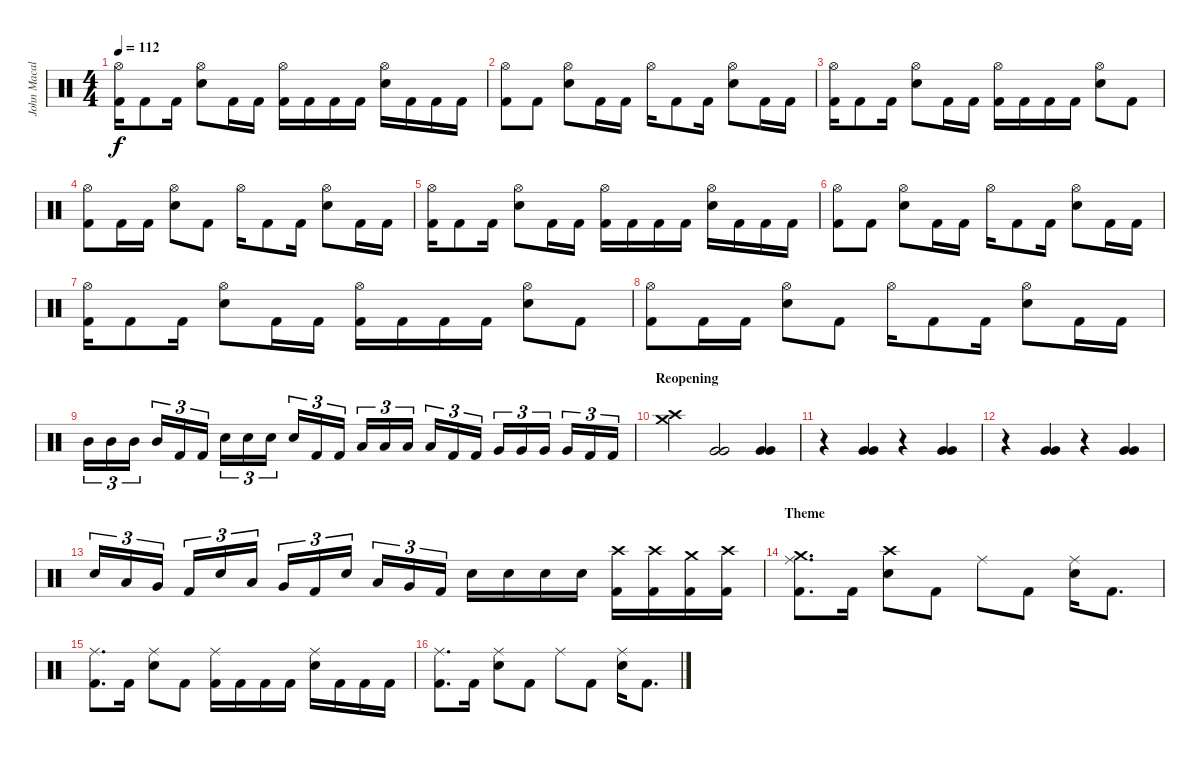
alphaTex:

\track ("John Macaluso" "John Macal") {instrument percussion}
\staff {score}
\articulation defaults
\ts (4 4)
\tempo 112
\clef neutral
\ks c
("Hi-Hat (open)" "Kick (hit) 2").16{dy f} "Kick (hit) 2".8 "Kick (hit) 2".16 ("Hi-Hat (open)" "Snare (hit) 2").8 "Kick (hit) 2".16 "Kick (hit) 2".16 ("Hi-Hat (open)" "Kick (hit) 2").16 "Kick (hit) 2".16 "Kick (hit) 2".16 "Kick (hit) 2".16 ("Hi-Hat (open)" "Snare (hit) 2").16 "Kick (hit) 2".16 "Kick (hit) 2".16 "Kick (hit) 2".16 |
("Hi-Hat (open)" "Kick (hit) 2").8 "Kick (hit) 2".8 ("Hi-Hat (open)" "Snare (hit) 2").8 "Kick (hit) 2".16 "Kick (hit) 2".16 "Hi-Hat (open)".16 "Kick (hit) 2".8 "Kick (hit) 2".16 ("Hi-Hat (open)" "Snare (hit) 2").8 "Kick (hit) 2".16 "Kick (hit) 2".16 |
("Hi-Hat (open)" "Kick (hit) 2").16 "Kick (hit) 2".8 "Kick (hit) 2".16 ("Hi-Hat (open)" "Snare (hit) 2").8 "Kick (hit) 2".16 "Kick (hit) 2".16 ("Hi-Hat (open)" "Kick (hit) 2").16 "Kick (hit) 2".16 "Kick (hit) 2".16 "Kick (hit) 2".16 ("Hi-Hat (open)" "Snare (hit) 2").8 "Kick (hit) 2".8 |
("Hi-Hat (open)" "Kick (hit) 2").8 "Kick (hit) 2".16 "Kick (hit) 2".16 ("Hi-Hat (open)" "Snare (hit) 2").8 "Kick (hit) 2".8 "Hi-Hat (open)".16 "Kick (hit) 2".8 "Kick (hit) 2".16 ("Hi-Hat (open)" "Snare (hit) 2").8 "Kick (hit) 2".16 "Kick (hit) 2".16 |
("Hi-Hat (open)" "Kick (hit) 2").16 "Kick (hit) 2".8 "Kick (hit) 2".16 ("Hi-Hat (open)" "Snare (hit) 2").8 "Kick (hit) 2".16 "Kick (hit) 2".16 ("Hi-Hat (open)" "Kick (hit) 2").16 "Kick (hit) 2".16 "Kick (hit) 2".16 "Kick (hit) 2".16 ("Hi-Hat (open)" "Snare (hit) 2").16 "Kick (hit) 2".16 "Kick (hit) 2".16 "Kick (hit) 2".16 |
("Hi-Hat (open)" "Kick (hit) 2").8 "Kick (hit) 2".8 ("Hi-Hat (open)" "Snare (hit) 2").8 "Kick (hit) 2".16 "Kick (hit) 2".16 "Hi-Hat (open)".16 "Kick (hit) 2".8 "Kick (hit) 2".16 ("Hi-Hat (open)" "Snare (hit) 2").8 "Kick (hit) 2".16 "Kick (hit) 2".16 |
("Hi-Hat (open)" "Kick (hit) 2").16 "Kick (hit) 2".8 "Kick (hit) 2".16 ("Hi-Hat (open)" "Snare (hit) 2").8 "Kick (hit) 2".16 "Kick (hit) 2".16 ("Hi-Hat (open)" "Kick (hit) 2").16 "Kick (hit) 2".16 "Kick (hit) 2".16 "Kick (hit) 2".16 ("Hi-Hat (open)" "Snare (hit) 2").8 "Kick (hit) 2".8 |
("Hi-Hat (open)" "Kick (hit) 2").8 "Kick (hit) 2".16 "Kick (hit) 2".16 ("Hi-Hat (open)" "Snare (hit) 2").8 "Kick (hit) 2".8 "Hi-Hat (open)".16 "Kick (hit) 2".8 "Kick (hit) 2".16 ("Hi-Hat (open)" "Snare (hit) 2").8 "Kick (hit) 2".16 "Kick (hit) 2".16 |
"Mid Tom (hit)".16{tu (3 2)} "Mid Tom (hit)".16{tu (3 2)} "Mid Tom (hit)".16{tu (3 2) beam splitsecondary} "Mid Tom (hit)".16{tu (3 2)} "Kick (hit) 2".16{tu (3 2)} "Kick (hit) 2".16{tu (3 2)} "Snare (hit) 2".16{tu (3 2)} "Snare (hit) 2".16{tu (3 2)} "Snare (hit) 2".16{tu (3 2) beam splitsecondary} "Snare (hit) 2".16{tu (3 2)} "Kick (hit) 2".16{tu (3 2)} "Kick (hit) 2".16{tu (3 2)} "Low Tom (hit)".16{tu (3 2)} "Low Tom (hit)".16{tu (3 2)} "Low Tom (hit)".16{tu (3 2) beam splitsecondary} "Low Tom (hit)".16{tu (3 2)} "Kick (hit) 2".16{tu (3 2)} "Kick (hit) 2".16{tu (3 2)} "Very Low Tom (hit)".16{tu (3 2)} "Very Low Tom (hit)".16{tu (3 2)} "Very Low Tom (hit)".16{tu (3 2) beam splitsecondary} "Very Low Tom (hit)".16{tu (3 2)} "Kick (hit) 2".16{tu (3 2)} "Kick (hit) 2".16{tu (3 2)} |
\section ("" "Reopening")
("Crash medium (hit)" "Crash high (hit)").4 ("Very Low Tom (hit)" "Very Low Tom (hit)").2 ("Very Low Tom (hit)" "Very Low Tom (hit)").4 |
r.4 ("Very Low Tom (hit)" "Very Low Tom (hit)").4 r.4 ("Very Low Tom (hit)" "Very Low Tom (hit)").4 |
r.4 ("Very Low Tom (hit)" "Very Low Tom (hit)").4 r.4 ("Very Low Tom (hit)" "Very Low Tom (hit)").4 |
"Snare (hit) 2".16{tu (3 2)} "Low Tom (hit)".16{tu (3 2)} "Very Low Tom (hit)".16{tu (3 2) beam splitsecondary} "Kick (hit) 2".16{tu (3 2)} "Snare (hit) 2".16{tu (3 2)} "Low Tom (hit)".16{tu (3 2)} "Very Low Tom (hit)".16{tu (3 2)} "Kick (hit) 2".16{tu (3 2)} "Snare (hit) 2".16{tu (3 2) beam splitsecondary} "Low Tom (hit)".16{tu (3 2)} "Very Low Tom (hit)".16{tu (3 2)} "Kick (hit) 2".16{tu (3 2)} "Snare (hit) 2".16 "Snare (hit) 2".16 "Snare (hit) 2".16 "Snare (hit) 2".16 ("Crash high (hit)" "Kick (hit) 2").16 ("Crash high (hit)" "Kick (hit) 2").16 ("Crash medium (hit)" "Kick (hit) 2").16 ("Crash high (hit)" "Kick (hit) 2").16 |
\section ("" "Theme")
("Crash medium (hit)" "Ride (middle)" "Kick (hit) 2").8{d} "Kick (hit) 2".16 ("Crash high (hit)" "Snare (hit) 2").8 "Kick (hit) 2".8 "Ride (middle)".8 "Kick (hit) 2".8 ("Ride (middle)" "Snare (hit) 2").16 "Kick (hit) 2".8{d} |
("Ride (middle)" "Kick (hit) 2").8{d} "Kick (hit) 2".16 ("Ride (middle)" "Snare (hit) 2").8 "Kick (hit) 2".8 ("Ride (middle)" "Kick (hit) 2").16 "Kick (hit) 2".16 "Kick (hit) 2".16 "Kick (hit) 2".16 ("Ride (middle)" "Snare (hit) 2").16 "Kick (hit) 2".16 "Kick (hit) 2".16 "Kick (hit) 2".16 |
("Ride (middle)" "Kick (hit) 2").8{d} "Kick (hit) 2".16 ("Ride (middle)" "Snare (hit) 2").8 "Kick (hit) 2".8 "Ride (middle)".8 "Kick (hit) 2".8 ("Ride (middle)" "Snare (hit) 2").16 "Kick (hit) 2".8{d}
